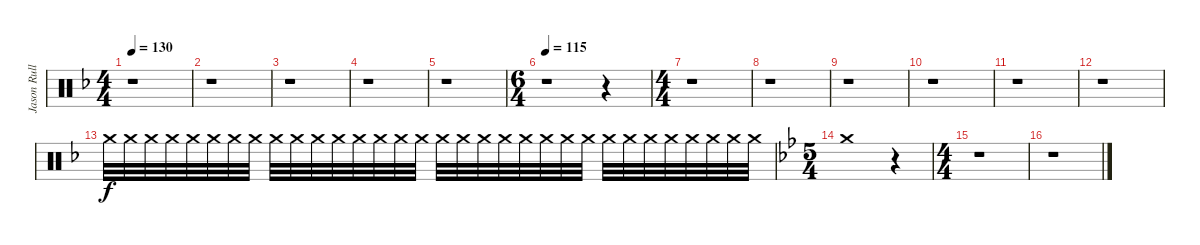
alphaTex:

\track ("Jason Rullo (drums)" "Jason Rull") {instrument percussion}
\staff {score}
\articulation defaults
\ts (4 4)
\tempo 130
\clef neutral
\ks dminor
r.1{dy f} |
r.1 |
r.1 |
r.1 |
r.1 |
\ts (6 4)
\tempo 122
\tempo 115
r.1 r.4 |
\ts (4 4)
r.1 |
r.1 |
r.1 |
r.1 |
r.1 |
r.1 |
"Crash medium (hit)".32{volume 0} "Crash medium (hit)".32{volume 0} "Crash medium (hit)".32{volume 1} "Crash medium (hit)".32{volume 1} "Crash medium (hit)".32{volume 2} "Crash medium (hit)".32{volume 2} "Crash medium (hit)".32{volume 2} "Crash medium (hit)".32{volume 3} "Crash medium (hit)".32{volume 3} "Crash medium (hit)".32{volume 3} "Crash medium (hit)".32{volume 4} "Crash medium (hit)".32{volume 4} "Crash medium (hit)".32{volume 4} "Crash medium (hit)".32{volume 5} "Crash medium (hit)".32{volume 5} "Crash medium (hit)".32{volume 6} "Crash medium (hit)".32{volume 6} "Crash medium (hit)".32{volume 6} "Crash medium (hit)".32{volume 7} "Crash medium (hit)".32{volume 7} "Crash medium (hit)".32{volume 7} "Crash medium (hit)".32{volume 8} "Crash medium (hit)".32{volume 8} "Crash medium (hit)".32{volume 8} "Crash medium (hit)".32{volume 9} "Crash medium (hit)".32{volume 9} "Crash medium (hit)".32{volume 10} "Crash medium (hit)".32{volume 10} "Crash medium (hit)".32{volume 10} "Crash medium (hit)".32{volume 11} "Crash medium (hit)".32{volume 11} "Crash medium (hit)".32{volume 12} |
\ts (5 4)
\ks gminor "Crash medium (hit)".1{volume 12}
r.4 |
\ts (4 4)
r.1 |
r.1
